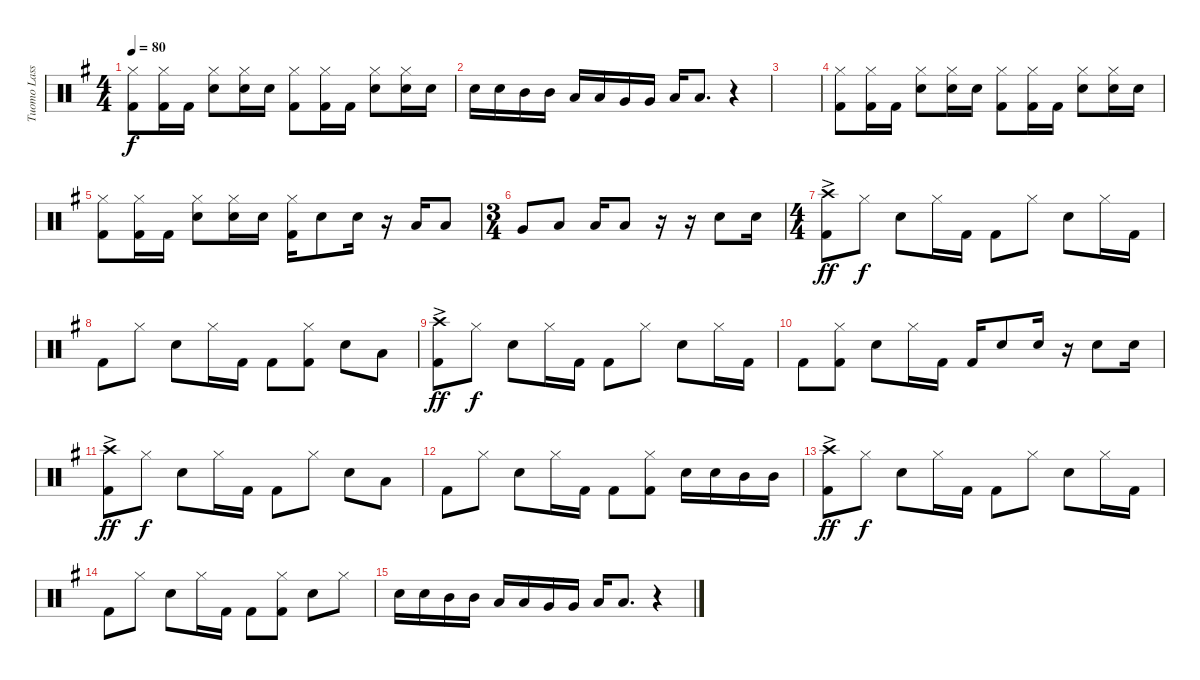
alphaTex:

\track ("Tuomo Lassila" "Tuomo Lass") {instrument percussion}
\staff {score}
\articulation defaults
\ts (4 4)
\tempo 80
\clef neutral
\ks g
("Hi-Hat (closed)" "Kick (hit) 2").8{dy f} ("Hi-Hat (closed)" "Kick (hit) 2").16 "Kick (hit) 2".16 ("Hi-Hat (closed)" "Electric Snare (hit)").8 ("Hi-Hat (closed)" "Electric Snare (hit)").16 "Electric Snare (hit)".16 ("Hi-Hat (closed)" "Kick (hit) 2").8 ("Hi-Hat (closed)" "Kick (hit) 2").16 "Kick (hit) 2".16 ("Hi-Hat (closed)" "Electric Snare (hit)").8 ("Hi-Hat (closed)" "Electric Snare (hit)").16 "Electric Snare (hit)".16 |
"Electric Snare (hit)".16 "Electric Snare (hit)".16 "Mid Tom (hit)".16 "Mid Tom (hit)".16 "Low Tom (hit)".16 "Low Tom (hit)".16 "Very Low Tom (hit)".16 "Very Low Tom (hit)".16 "Low Floor Tom (hit)".16 "Low Floor Tom (hit)".8{d} r.4 |
|
("Hi-Hat (closed)" "Kick (hit) 2").8 ("Hi-Hat (closed)" "Kick (hit) 2").16 "Kick (hit) 2".16 ("Hi-Hat (closed)" "Electric Snare (hit)").8 ("Hi-Hat (closed)" "Electric Snare (hit)").16 "Electric Snare (hit)".16 ("Hi-Hat (closed)" "Kick (hit) 2").8 ("Hi-Hat (closed)" "Kick (hit) 2").16 "Kick (hit) 2".16 ("Hi-Hat (closed)" "Electric Snare (hit)").8 ("Hi-Hat (closed)" "Electric Snare (hit)").16 "Electric Snare (hit)".16 |
("Hi-Hat (closed)" "Kick (hit) 2").8 ("Hi-Hat (closed)" "Kick (hit) 2").16 "Kick (hit) 2".16 ("Hi-Hat (closed)" "Electric Snare (hit)").8 ("Hi-Hat (closed)" "Electric Snare (hit)").16 "Electric Snare (hit)".16 ("Hi-Hat (closed)" "Kick (hit) 2").16 "Electric Snare (hit)".8 "Electric Snare (hit)".16 r.16 "Low Tom (hit)".16 "Low Tom (hit)".8 |
\ts (3 4)
"Very Low Tom (hit)".8 "Low Tom (hit)".8 "Low Floor Tom (hit)".16 "Low Floor Tom (hit)".8 r.16 r.16 "Electric Snare (hit)".8 "Electric Snare (hit)".16 |
\ts (4 4)
("Crash high (hit)"{ac} "Kick (hit) 2"{ac}).8{dy ff} "Hi-Hat (closed)".8{dy f} "Electric Snare (hit)".8 "Hi-Hat (closed)".16 "Kick (hit) 2".16 "Kick (hit) 2".8 "Hi-Hat (closed)".8 "Electric Snare (hit)".8 "Hi-Hat (closed)".16 "Kick (hit) 2".16 |
"Kick (hit) 2".8 "Hi-Hat (closed)".8 "Electric Snare (hit)".8 "Hi-Hat (closed)".16 "Kick (hit) 2".16 "Kick (hit) 2".8 ("Hi-Hat (closed)" "Kick (hit) 2").8 "Electric Snare (hit)".8 "Low Tom (hit)".8 |
("Crash high (hit)"{ac} "Kick (hit) 2"{ac}).8{dy ff} "Hi-Hat (closed)".8{dy f} "Electric Snare (hit)".8 "Hi-Hat (closed)".16 "Kick (hit) 2".16 "Kick (hit) 2".8 "Hi-Hat (closed)".8 "Electric Snare (hit)".8 "Hi-Hat (closed)".16 "Kick (hit) 2".16 |
"Kick (hit) 2".8 ("Hi-Hat (closed)" "Kick (hit) 2").8 "Electric Snare (hit)".8 "Hi-Hat (closed)".16 "Kick (hit) 2".16 "Kick (hit) 2".16 "Electric Snare (hit)".8 "Electric Snare (hit)".16 r.16 "Electric Snare (hit)".8 "Electric Snare (hit)".16 |
("Crash high (hit)"{ac} "Kick (hit) 2"{ac}).8{dy ff} "Hi-Hat (closed)".8{dy f} "Electric Snare (hit)".8 "Hi-Hat (closed)".16 "Kick (hit) 2".16 "Kick (hit) 2".8 "Hi-Hat (closed)".8 "Electric Snare (hit)".8 "Low Tom (hit)".8 |
"Kick (hit) 2".8 "Hi-Hat (closed)".8 "Electric Snare (hit)".8 "Hi-Hat (closed)".16 "Kick (hit) 2".16 "Kick (hit) 2".8 ("Hi-Hat (closed)" "Kick (hit) 2").8 "Electric Snare (hit)".16 "Electric Snare (hit)".16 "Mid Tom (hit)".16 "Mid Tom (hit)".16 |
("Crash high (hit)"{ac} "Kick (hit) 2"{ac}).8{dy ff} "Hi-Hat (closed)".8{dy f} "Electric Snare (hit)".8 "Hi-Hat (closed)".16 "Kick (hit) 2".16 "Kick (hit) 2".8 "Hi-Hat (closed)".8 "Electric Snare (hit)".8 "Hi-Hat (closed)".16 "Kick (hit) 2".16 |
"Kick (hit) 2".8 "Hi-Hat (closed)".8 "Electric Snare (hit)".8 "Hi-Hat (closed)".16 "Kick (hit) 2".16 "Kick (hit) 2".8 ("Hi-Hat (closed)" "Kick (hit) 2").8 "Electric Snare (hit)".8 "Hi-Hat (closed)".8 |
"Electric Snare (hit)".16 "Electric Snare (hit)".16 "Mid Tom (hit)".16 "Mid Tom (hit)".16 "Low Tom (hit)".16 "Low Tom (hit)".16 "Very Low Tom (hit)".16 "Very Low Tom (hit)".16 "Low Floor Tom (hit)".16 "Low Floor Tom (hit)".8{d} r.4
